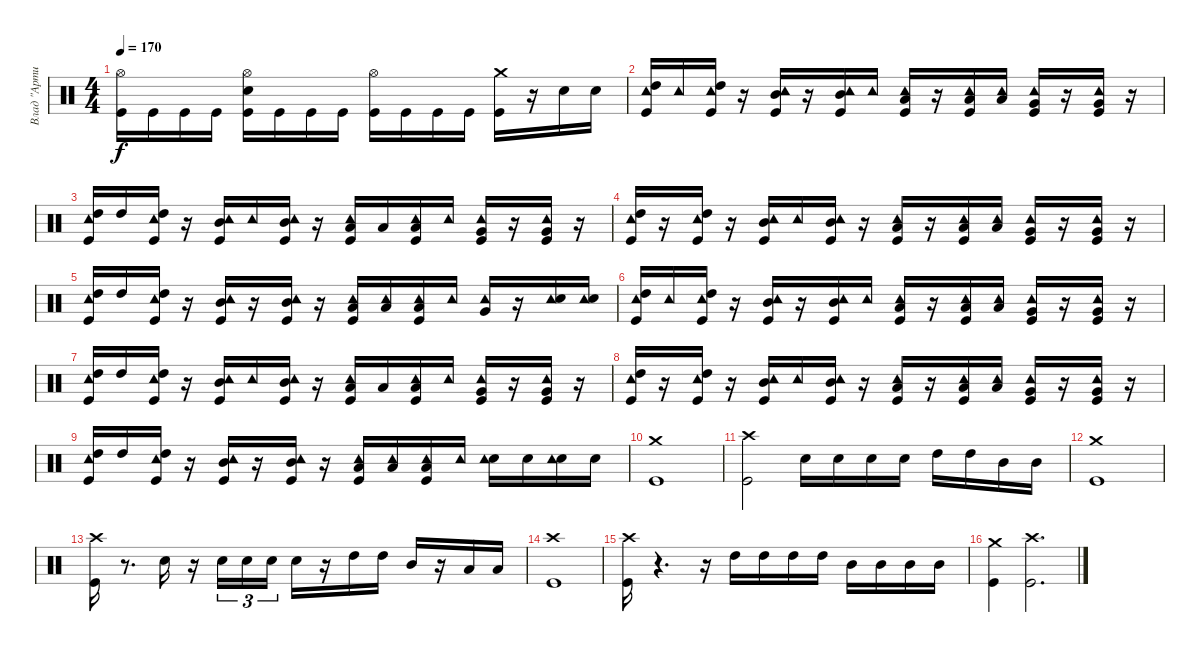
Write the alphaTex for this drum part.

\track ("Влад \"Артист\"" "Влад \"Арти") {instrument percussion}
\staff {score}
\articulation defaults
\ts (4 4)
\tempo 170
\clef neutral
\ks c
("Hi-Hat (open)" "Kick (hit)").16{dy f} "Kick (hit)".16 "Kick (hit)".16 "Kick (hit)".16 ("Snare (hit) 2" "Hi-Hat (open)" "Kick (hit)").16 "Kick (hit)".16 "Kick (hit)".16 "Kick (hit)".16 ("Hi-Hat (open)" "Kick (hit)").16 "Kick (hit)".16 "Kick (hit)".16 "Kick (hit)".16 ("Crash medium (hit)" "Kick (hit)").16 r.16 "Snare (hit) 2".16 "Snare (hit) 2".16 |
("High Tom (hit)" "Kick (hit)" "Tambourine (hit)").16 "Tambourine (hit)".16 ("High Tom (hit)" "Kick (hit)" "Tambourine (hit)").16 r.16 ("Mid Tom (hit)" "Kick (hit)" "Tambourine (hit)").16 r.16 ("Mid Tom (hit)" "Kick (hit)" "Tambourine (hit)").16 "Tambourine (hit)".16 ("Kick (hit)" "Low Tom (hit)" "Tambourine (hit)").16 r.16 ("Low Tom (hit)" "Kick (hit)" "Tambourine (hit)").16 ("Low Tom (hit)" "Tambourine (hit)").16 ("Very Low Tom (hit)" "Kick (hit)" "Tambourine (hit)").16 r.16 ("Very Low Tom (hit)" "Kick (hit)" "Tambourine (hit)").16 r.16 |
("High Tom (hit)" "Kick (hit)" "Tambourine (hit)").16 "High Tom (hit)".16 ("High Tom (hit)" "Kick (hit)" "Tambourine (hit)").16 r.16 ("Mid Tom (hit)" "Kick (hit)" "Tambourine (hit)").16 "Tambourine (hit)".16 ("Kick (hit)" "Mid Tom (hit)" "Tambourine (hit)").16 r.16 ("Low Tom (hit)" "Kick (hit)" "Tambourine (hit)").16 "Low Tom (hit)".16 ("Kick (hit)" "Low Tom (hit)" "Tambourine (hit)").16 "Tambourine (hit)".16 ("Very Low Tom (hit)" "Kick (hit)" "Tambourine (hit)").16 r.16 ("Very Low Tom (hit)" "Kick (hit)" "Tambourine (hit)").16 r.16 |
("Tambourine (hit)" "High Tom (hit)" "Kick (hit)").16 r.16 ("Tambourine (hit)" "High Tom (hit)" "Kick (hit)").16 r.16 ("Tambourine (hit)" "Mid Tom (hit)" "Kick (hit)").16 "Tambourine (hit)".16 ("Tambourine (hit)" "Mid Tom (hit)" "Kick (hit)").16 r.16 ("Tambourine (hit)" "Kick (hit)" "Low Tom (hit)").16 r.16 ("Tambourine (hit)" "Low Tom (hit)" "Kick (hit)").16 ("Tambourine (hit)" "Low Tom (hit)").16 ("Tambourine (hit)" "Very Low Tom (hit)" "Kick (hit)").16 r.16 ("Tambourine (hit)" "Very Low Tom (hit)" "Kick (hit)").16 r.16 |
("Tambourine (hit)" "High Tom (hit)" "Kick (hit)").16 "High Tom (hit)".16 ("Tambourine (hit)" "High Tom (hit)" "Kick (hit)").16 r.16 ("Tambourine (hit)" "Mid Tom (hit)" "Kick (hit)").16 r.16 ("Tambourine (hit)" "Kick (hit)" "Mid Tom (hit)").16 r.16 ("Tambourine (hit)" "Low Tom (hit)" "Kick (hit)").16 ("Tambourine (hit)" "Low Tom (hit)").16 ("Tambourine (hit)" "Kick (hit)" "Low Tom (hit)").16 "Tambourine (hit)".16 ("Tambourine (hit)" "Very Low Tom (hit)").16 r.16 ("Tambourine (hit)" "Snare (hit) 2").16 ("Tambourine (hit)" "Snare (hit) 2").16 |
("High Tom (hit)" "Kick (hit)" "Tambourine (hit)").16 "Tambourine (hit)".16 ("High Tom (hit)" "Kick (hit)" "Tambourine (hit)").16 r.16 ("Mid Tom (hit)" "Kick (hit)" "Tambourine (hit)").16 r.16 ("Mid Tom (hit)" "Kick (hit)" "Tambourine (hit)").16 "Tambourine (hit)".16 ("Kick (hit)" "Low Tom (hit)" "Tambourine (hit)").16 r.16 ("Low Tom (hit)" "Kick (hit)" "Tambourine (hit)").16 ("Low Tom (hit)" "Tambourine (hit)").16 ("Very Low Tom (hit)" "Kick (hit)" "Tambourine (hit)").16 r.16 ("Very Low Tom (hit)" "Kick (hit)" "Tambourine (hit)").16 r.16 |
("High Tom (hit)" "Kick (hit)" "Tambourine (hit)").16 "High Tom (hit)".16 ("High Tom (hit)" "Kick (hit)" "Tambourine (hit)").16 r.16 ("Mid Tom (hit)" "Kick (hit)" "Tambourine (hit)").16 "Tambourine (hit)".16 ("Kick (hit)" "Mid Tom (hit)" "Tambourine (hit)").16 r.16 ("Low Tom (hit)" "Kick (hit)" "Tambourine (hit)").16 "Low Tom (hit)".16 ("Kick (hit)" "Low Tom (hit)" "Tambourine (hit)").16 "Tambourine (hit)".16 ("Very Low Tom (hit)" "Kick (hit)" "Tambourine (hit)").16 r.16 ("Very Low Tom (hit)" "Kick (hit)" "Tambourine (hit)").16 r.16 |
("High Tom (hit)" "Kick (hit)" "Tambourine (hit)").16 r.16 ("High Tom (hit)" "Kick (hit)" "Tambourine (hit)").16 r.16 ("Mid Tom (hit)" "Kick (hit)" "Tambourine (hit)").16 "Tambourine (hit)".16 ("Mid Tom (hit)" "Kick (hit)" "Tambourine (hit)").16 r.16 ("Kick (hit)" "Low Tom (hit)" "Tambourine (hit)").16 r.16 ("Low Tom (hit)" "Kick (hit)" "Tambourine (hit)").16 ("Low Tom (hit)" "Tambourine (hit)").16 ("Very Low Tom (hit)" "Kick (hit)" "Tambourine (hit)").16 r.16 ("Very Low Tom (hit)" "Kick (hit)" "Tambourine (hit)").16 r.16 |
("High Tom (hit)" "Kick (hit)" "Tambourine (hit)").16 "High Tom (hit)".16 ("High Tom (hit)" "Kick (hit)" "Tambourine (hit)").16 r.16 ("Mid Tom (hit)" "Kick (hit)" "Tambourine (hit)").16 r.16 ("Kick (hit)" "Mid Tom (hit)" "Tambourine (hit)").16 r.16 ("Low Tom (hit)" "Kick (hit)" "Tambourine (hit)").16 ("Low Tom (hit)" "Tambourine (hit)").16 ("Kick (hit)" "Low Tom (hit)" "Tambourine (hit)").16 "Tambourine (hit)".16 ("Snare (hit) 2" "Tambourine (hit)").16 "Snare (hit) 2".16 ("Snare (hit) 2" "Tambourine (hit)").16 "Snare (hit) 2".16 |
("Crash medium (hit)" "Kick (hit)").1 |
("Crash high (hit)" "Kick (hit)").2 "Snare (hit) 2".16 "Snare (hit) 2".16 "Snare (hit) 2".16 "Snare (hit) 2".16 "High Tom (hit)".16 "High Tom (hit)".16 "Mid Tom (hit)".16 "Mid Tom (hit)".16 |
("Crash medium (hit)" "Kick (hit)").1 |
("Crash high (hit)" "Kick (hit)").16 r.8{d} "Snare (hit) 2".16 r.16 "Snare (hit) 2".16{tu (3 2)} "Snare (hit) 2".16{tu (3 2)} "Snare (hit) 2".16{tu (3 2)} "Snare (hit) 2".16 r.16 "High Tom (hit)".16 "High Tom (hit)".16 "Mid Tom (hit)".16 r.16 "Low Tom (hit)".16 "Low Tom (hit)".16 |
("Crash high (hit)" "Kick (hit)").1 |
("Kick (hit)" "Crash high (hit)").16 r.4{d} r.16 "High Tom (hit)".16 "High Tom (hit)".16 "High Tom (hit)".16 "High Tom (hit)".16 "Mid Tom (hit)".16 "Mid Tom (hit)".16 "Mid Tom (hit)".16 "Mid Tom (hit)".16 |
("Crash medium (hit)" "Kick (hit)").4 ("Crash high (hit)" "Kick (hit)").2{d}
